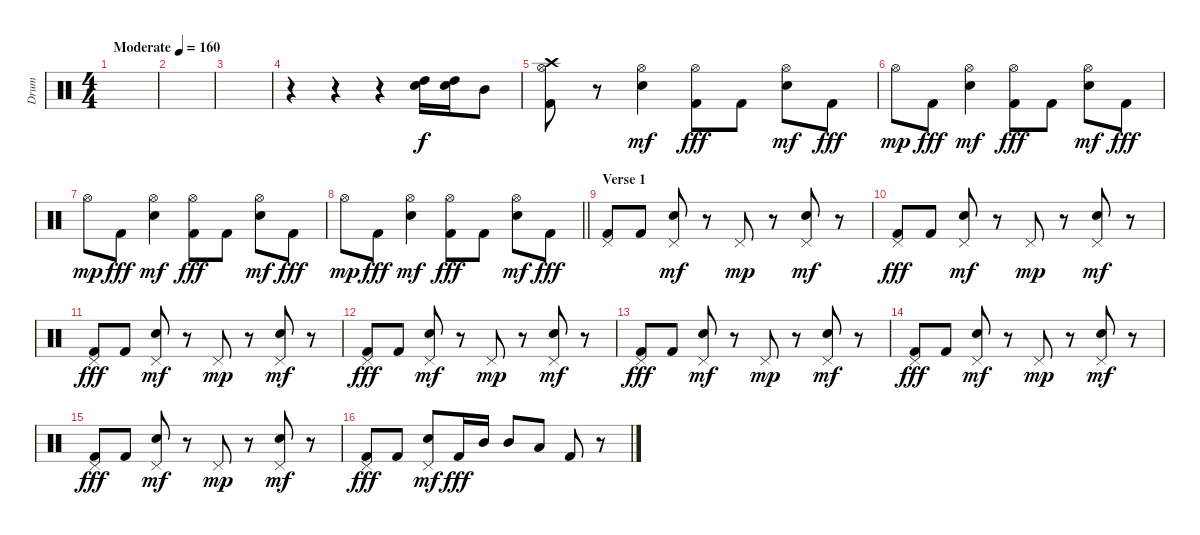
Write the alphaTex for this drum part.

\track ("Drum" "Drum") {instrument percussion}
\staff {score}
\articulation defaults
\ts (4 4)
\tempo (160 "Moderate")
\clef neutral
\ks c
|
|
|
r.4 r.4 r.4 ("High Tom (hit)" "Electric Snare (hit)").16 ("High Tom (hit)" "Electric Snare (hit)").16 "Mid Tom (hit)".8 |
("Hi-Hat (open)" "Kick (hit) 2" "Crash high (hit)").8 r.8 ("Hi-Hat (open)" "Electric Snare (hit)").4{dy mf} ("Hi-Hat (open)" "Kick (hit) 2").8{dy fff} "Kick (hit) 2".8 ("Hi-Hat (open)" "Electric Snare (hit)").8{dy mf} "Kick (hit) 2".8{dy fff} |
"Hi-Hat (open)".8{dy mp} "Kick (hit) 2".8{dy fff} ("Hi-Hat (open)" "Electric Snare (hit)").4{dy mf} ("Hi-Hat (open)" "Kick (hit) 2").8{dy fff} "Kick (hit) 2".8 ("Hi-Hat (open)" "Electric Snare (hit)").8{dy mf} "Kick (hit) 2".8{dy fff} |
"Hi-Hat (open)".8{dy mp} "Kick (hit) 2".8{dy fff} ("Hi-Hat (open)" "Electric Snare (hit)").4{dy mf} ("Hi-Hat (open)" "Kick (hit) 2").8{dy fff} "Kick (hit) 2".8 ("Hi-Hat (open)" "Electric Snare (hit)").8{dy mf} "Kick (hit) 2".8{dy fff} |
\barLineRight lightlight "Hi-Hat (open)".8{dy mp} "Kick (hit) 2".8{dy fff}
("Hi-Hat (open)" "Electric Snare (hit)").4{dy mf} ("Hi-Hat (open)" "Kick (hit) 2").8{dy fff} "Kick (hit) 2".8 ("Hi-Hat (open)" "Electric Snare (hit)").8{dy mf} "Kick (hit) 2".8{dy fff} |
\section ("" "Verse 1")
("Pedal Hi-Hat (hit)" "Kick (hit) 2").8 "Kick (hit) 2".8 ("Pedal Hi-Hat (hit)" "Electric Snare (hit)").8{dy mf} r.8 "Pedal Hi-Hat (hit)".8{dy mp} r.8 ("Pedal Hi-Hat (hit)" "Electric Snare (hit)").8{dy mf} r.8 |
("Pedal Hi-Hat (hit)" "Kick (hit) 2").8{dy fff} "Kick (hit) 2".8 ("Pedal Hi-Hat (hit)" "Electric Snare (hit)").8{dy mf} r.8 "Pedal Hi-Hat (hit)".8{dy mp} r.8 ("Pedal Hi-Hat (hit)" "Electric Snare (hit)").8{dy mf} r.8 |
("Pedal Hi-Hat (hit)" "Kick (hit) 2").8{dy fff} "Kick (hit) 2".8 ("Pedal Hi-Hat (hit)" "Electric Snare (hit)").8{dy mf} r.8 "Pedal Hi-Hat (hit)".8{dy mp} r.8 ("Pedal Hi-Hat (hit)" "Electric Snare (hit)").8{dy mf} r.8 |
("Pedal Hi-Hat (hit)" "Kick (hit) 2").8{dy fff} "Kick (hit) 2".8 ("Pedal Hi-Hat (hit)" "Electric Snare (hit)").8{dy mf} r.8 "Pedal Hi-Hat (hit)".8{dy mp} r.8 ("Pedal Hi-Hat (hit)" "Electric Snare (hit)").8{dy mf} r.8 |
("Pedal Hi-Hat (hit)" "Kick (hit) 2").8{dy fff} "Kick (hit) 2".8 ("Pedal Hi-Hat (hit)" "Electric Snare (hit)").8{dy mf} r.8 "Pedal Hi-Hat (hit)".8{dy mp} r.8 ("Pedal Hi-Hat (hit)" "Electric Snare (hit)").8{dy mf} r.8 |
("Pedal Hi-Hat (hit)" "Kick (hit) 2").8{dy fff} "Kick (hit) 2".8 ("Pedal Hi-Hat (hit)" "Electric Snare (hit)").8{dy mf} r.8 "Pedal Hi-Hat (hit)".8{dy mp} r.8 ("Pedal Hi-Hat (hit)" "Electric Snare (hit)").8{dy mf} r.8 |
("Pedal Hi-Hat (hit)" "Kick (hit) 2").8{dy fff} "Kick (hit) 2".8 ("Pedal Hi-Hat (hit)" "Electric Snare (hit)").8{dy mf} r.8 "Pedal Hi-Hat (hit)".8{dy mp} r.8 ("Pedal Hi-Hat (hit)" "Electric Snare (hit)").8{dy mf} r.8 |
("Pedal Hi-Hat (hit)" "Kick (hit) 2").8{dy fff} "Kick (hit) 2".8 ("Pedal Hi-Hat (hit)" "Electric Snare (hit)").8{dy mf} "Kick (hit) 2".16{dy fff} "Mid Tom (hit)".16 "Mid Tom (hit)".8 "Low Tom (hit)".8 "Kick (hit) 2".8 r.8
